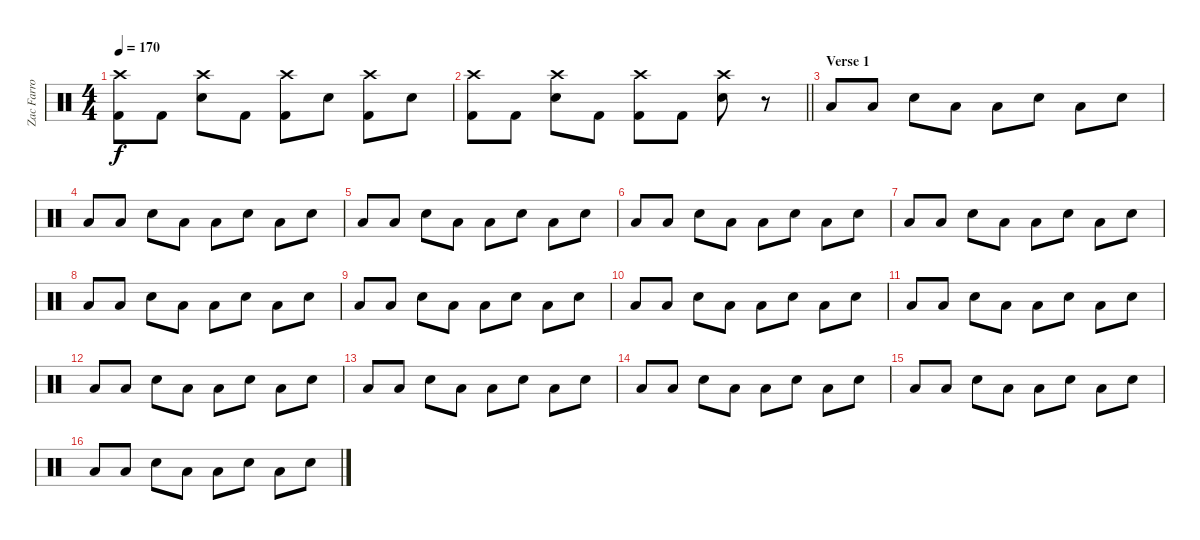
\track ("Zac Farro (Percussion)" "Zac Farro ") {instrument percussion}
\staff {score}
\articulation defaults
\ts (4 4)
\tempo 170
\clef neutral
\ks c
("Crash high (hit)" "Kick (hit) 2").8{dy f} "Kick (hit) 2".8 ("Crash high (hit)" "Electric Snare (hit)").8 "Kick (hit) 2".8 ("Crash high (hit)" "Kick (hit) 2").8 "Electric Snare (hit)".8 ("Crash high (hit)" "Kick (hit) 2").8 "Electric Snare (hit)".8 |
\barLineRight lightlight
("Crash high (hit)" "Kick (hit) 2").8 "Kick (hit) 2".8 ("Crash high (hit)" "Electric Snare (hit)").8 "Kick (hit) 2".8 ("Crash high (hit)" "Kick (hit) 2").8 "Kick (hit) 2".8 ("Crash high (hit)" "Electric Snare (hit)").8 r.8 |
\section ("" "Verse 1")
"Low Floor Tom (hit)".8 "Low Floor Tom (hit)".8 "Electric Snare (hit)".8 "Low Floor Tom (hit)".8 "Low Floor Tom (hit)".8 "Electric Snare (hit)".8 "Low Floor Tom (hit)".8 "Electric Snare (hit)".8 |
"Low Floor Tom (hit)".8 "Low Floor Tom (hit)".8 "Electric Snare (hit)".8 "Low Floor Tom (hit)".8 "Low Floor Tom (hit)".8 "Electric Snare (hit)".8 "Low Floor Tom (hit)".8 "Electric Snare (hit)".8 |
"Low Floor Tom (hit)".8 "Low Floor Tom (hit)".8 "Electric Snare (hit)".8 "Low Floor Tom (hit)".8 "Low Floor Tom (hit)".8 "Electric Snare (hit)".8 "Low Floor Tom (hit)".8 "Electric Snare (hit)".8 |
"Low Floor Tom (hit)".8 "Low Floor Tom (hit)".8 "Electric Snare (hit)".8 "Low Floor Tom (hit)".8 "Low Floor Tom (hit)".8 "Electric Snare (hit)".8 "Low Floor Tom (hit)".8 "Electric Snare (hit)".8 |
"Low Floor Tom (hit)".8 "Low Floor Tom (hit)".8 "Electric Snare (hit)".8 "Low Floor Tom (hit)".8 "Low Floor Tom (hit)".8 "Electric Snare (hit)".8 "Low Floor Tom (hit)".8 "Electric Snare (hit)".8 |
"Low Floor Tom (hit)".8 "Low Floor Tom (hit)".8 "Electric Snare (hit)".8 "Low Floor Tom (hit)".8 "Low Floor Tom (hit)".8 "Electric Snare (hit)".8 "Low Floor Tom (hit)".8 "Electric Snare (hit)".8 |
"Low Floor Tom (hit)".8 "Low Floor Tom (hit)".8 "Electric Snare (hit)".8 "Low Floor Tom (hit)".8 "Low Floor Tom (hit)".8 "Electric Snare (hit)".8 "Low Floor Tom (hit)".8 "Electric Snare (hit)".8 |
"Low Floor Tom (hit)".8 "Low Floor Tom (hit)".8 "Electric Snare (hit)".8 "Low Floor Tom (hit)".8 "Low Floor Tom (hit)".8 "Electric Snare (hit)".8 "Low Floor Tom (hit)".8 "Electric Snare (hit)".8 |
"Low Floor Tom (hit)".8 "Low Floor Tom (hit)".8 "Electric Snare (hit)".8 "Low Floor Tom (hit)".8 "Low Floor Tom (hit)".8 "Electric Snare (hit)".8 "Low Floor Tom (hit)".8 "Electric Snare (hit)".8 |
"Low Floor Tom (hit)".8 "Low Floor Tom (hit)".8 "Electric Snare (hit)".8 "Low Floor Tom (hit)".8 "Low Floor Tom (hit)".8 "Electric Snare (hit)".8 "Low Floor Tom (hit)".8 "Electric Snare (hit)".8 |
"Low Floor Tom (hit)".8 "Low Floor Tom (hit)".8 "Electric Snare (hit)".8 "Low Floor Tom (hit)".8 "Low Floor Tom (hit)".8 "Electric Snare (hit)".8 "Low Floor Tom (hit)".8 "Electric Snare (hit)".8 |
"Low Floor Tom (hit)".8 "Low Floor Tom (hit)".8 "Electric Snare (hit)".8 "Low Floor Tom (hit)".8 "Low Floor Tom (hit)".8 "Electric Snare (hit)".8 "Low Floor Tom (hit)".8 "Electric Snare (hit)".8 |
"Low Floor Tom (hit)".8 "Low Floor Tom (hit)".8 "Electric Snare (hit)".8 "Low Floor Tom (hit)".8 "Low Floor Tom (hit)".8 "Electric Snare (hit)".8 "Low Floor Tom (hit)".8 "Electric Snare (hit)".8 |
"Low Floor Tom (hit)".8 "Low Floor Tom (hit)".8 "Electric Snare (hit)".8 "Low Floor Tom (hit)".8 "Low Floor Tom (hit)".8 "Electric Snare (hit)".8 "Low Floor Tom (hit)".8 "Electric Snare (hit)".8
